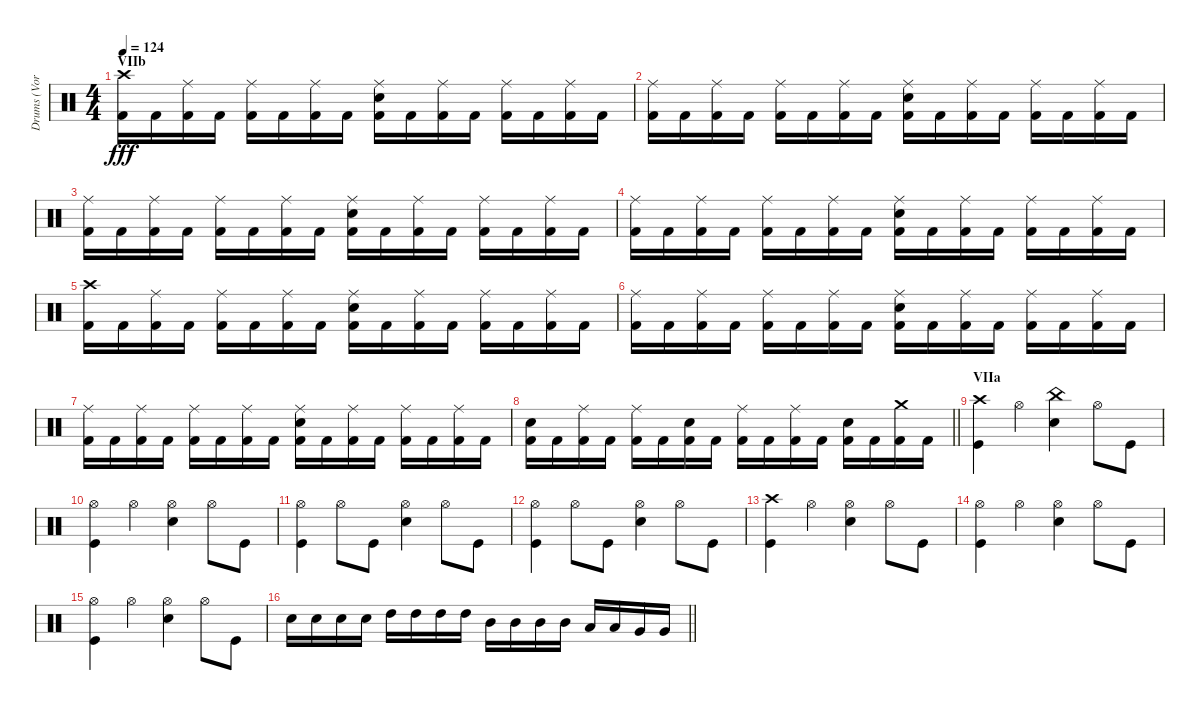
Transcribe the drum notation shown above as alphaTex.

\track ("Drums (Vortex)" "Drums (Vor") {instrument percussion}
\staff {score}
\articulation defaults
\ts (4 4)
\section ("" "VIIb")
\tempo 124
\clef neutral
\ks c
("Crash high (hit)" "Kick (hit) 2").16{dy fff} "Kick (hit) 2".16 ("Ride (middle)" "Kick (hit) 2").16 "Kick (hit) 2".16 ("Ride (middle)" "Kick (hit) 2").16 "Kick (hit) 2".16 ("Ride (middle)" "Kick (hit) 2").16 "Kick (hit) 2".16 ("Ride (middle)" "Snare (hit) 2" "Kick (hit) 2").16 "Kick (hit) 2".16 ("Ride (middle)" "Kick (hit) 2").16 "Kick (hit) 2".16 ("Ride (middle)" "Kick (hit) 2").16 "Kick (hit) 2".16 ("Ride (middle)" "Kick (hit) 2").16 "Kick (hit) 2".16 |
("Ride (middle)" "Kick (hit) 2").16 "Kick (hit) 2".16 ("Ride (middle)" "Kick (hit) 2").16 "Kick (hit) 2".16 ("Ride (middle)" "Kick (hit) 2").16 "Kick (hit) 2".16 ("Ride (middle)" "Kick (hit) 2").16 "Kick (hit) 2".16 ("Ride (middle)" "Snare (hit) 2" "Kick (hit) 2").16 "Kick (hit) 2".16 ("Ride (middle)" "Kick (hit) 2").16 "Kick (hit) 2".16 ("Ride (middle)" "Kick (hit) 2").16 "Kick (hit) 2".16 ("Ride (middle)" "Kick (hit) 2").16 "Kick (hit) 2".16 |
("Ride (middle)" "Kick (hit) 2").16 "Kick (hit) 2".16 ("Ride (middle)" "Kick (hit) 2").16 "Kick (hit) 2".16 ("Ride (middle)" "Kick (hit) 2").16 "Kick (hit) 2".16 ("Ride (middle)" "Kick (hit) 2").16 "Kick (hit) 2".16 ("Ride (middle)" "Snare (hit) 2" "Kick (hit) 2").16 "Kick (hit) 2".16 ("Ride (middle)" "Kick (hit) 2").16 "Kick (hit) 2".16 ("Ride (middle)" "Kick (hit) 2").16 "Kick (hit) 2".16 ("Ride (middle)" "Kick (hit) 2").16 "Kick (hit) 2".16 |
("Ride (middle)" "Kick (hit) 2").16 "Kick (hit) 2".16 ("Ride (middle)" "Kick (hit) 2").16 "Kick (hit) 2".16 ("Ride (middle)" "Kick (hit) 2").16 "Kick (hit) 2".16 ("Ride (middle)" "Kick (hit) 2").16 "Kick (hit) 2".16 ("Ride (middle)" "Snare (hit) 2" "Kick (hit) 2").16 "Kick (hit) 2".16 ("Ride (middle)" "Kick (hit) 2").16 "Kick (hit) 2".16 ("Ride (middle)" "Kick (hit) 2").16 "Kick (hit) 2".16 ("Ride (middle)" "Kick (hit) 2").16 "Kick (hit) 2".16 |
("Crash high (hit)" "Kick (hit) 2").16 "Kick (hit) 2".16 ("Ride (middle)" "Kick (hit) 2").16 "Kick (hit) 2".16 ("Ride (middle)" "Kick (hit) 2").16 "Kick (hit) 2".16 ("Ride (middle)" "Kick (hit) 2").16 "Kick (hit) 2".16 ("Ride (middle)" "Snare (hit) 2" "Kick (hit) 2").16 "Kick (hit) 2".16 ("Ride (middle)" "Kick (hit) 2").16 "Kick (hit) 2".16 ("Ride (middle)" "Kick (hit) 2").16 "Kick (hit) 2".16 ("Ride (middle)" "Kick (hit) 2").16 "Kick (hit) 2".16 |
("Ride (middle)" "Kick (hit) 2").16 "Kick (hit) 2".16 ("Ride (middle)" "Kick (hit) 2").16 "Kick (hit) 2".16 ("Ride (middle)" "Kick (hit) 2").16 "Kick (hit) 2".16 ("Ride (middle)" "Kick (hit) 2").16 "Kick (hit) 2".16 ("Ride (middle)" "Snare (hit) 2" "Kick (hit) 2").16 "Kick (hit) 2".16 ("Ride (middle)" "Kick (hit) 2").16 "Kick (hit) 2".16 ("Ride (middle)" "Kick (hit) 2").16 "Kick (hit) 2".16 ("Ride (middle)" "Kick (hit) 2").16 "Kick (hit) 2".16 |
("Ride (middle)" "Kick (hit) 2").16 "Kick (hit) 2".16 ("Ride (middle)" "Kick (hit) 2").16 "Kick (hit) 2".16 ("Ride (middle)" "Kick (hit) 2").16 "Kick (hit) 2".16 ("Ride (middle)" "Kick (hit) 2").16 "Kick (hit) 2".16 ("Ride (middle)" "Snare (hit) 2" "Kick (hit) 2").16 "Kick (hit) 2".16 ("Ride (middle)" "Kick (hit) 2").16 "Kick (hit) 2".16 ("Ride (middle)" "Kick (hit) 2").16 "Kick (hit) 2".16 ("Ride (middle)" "Kick (hit) 2").16 "Kick (hit) 2".16 |
\barLineRight lightlight
("Snare (hit) 2" "Kick (hit) 2").16 "Kick (hit) 2".16 ("Ride (middle)" "Kick (hit) 2").16 "Kick (hit) 2".16 ("Ride (middle)" "Kick (hit) 2").16 "Kick (hit) 2".16 ("Snare (hit) 2" "Kick (hit) 2").16 "Kick (hit) 2".16 ("Ride (middle)" "Kick (hit) 2").16 "Kick (hit) 2".16 ("Ride (middle)" "Kick (hit) 2").16 "Kick (hit) 2".16 ("Snare (hit) 2" "Kick (hit) 2").16 "Kick (hit) 2".16 ("Crash medium (hit)" "Kick (hit) 2").16 "Kick (hit) 2".16 |
\section ("" "VIIa")
("Crash high (hit)" "Kick (hit)").4 "Hi-Hat (open)".4 ("China (hit)" "Snare (hit) 2").4 "Hi-Hat (open)".8 "Kick (hit)".8 |
("Kick (hit)" "Hi-Hat (open)").4 "Hi-Hat (open)".4 ("Hi-Hat (open)" "Snare (hit) 2").4 "Hi-Hat (open)".8 "Kick (hit)".8 |
("Kick (hit)" "Hi-Hat (open)").4 "Hi-Hat (open)".8 "Kick (hit)".8 ("Hi-Hat (open)" "Snare (hit) 2").4 "Hi-Hat (open)".8 "Kick (hit)".8 |
("Kick (hit)" "Hi-Hat (open)").4 "Hi-Hat (open)".8 "Kick (hit)".8 ("Hi-Hat (open)" "Snare (hit) 2").4 "Hi-Hat (open)".8 "Kick (hit)".8 |
("Crash high (hit)" "Kick (hit)").4 "Hi-Hat (open)".4 ("Hi-Hat (open)" "Snare (hit) 2").4 "Hi-Hat (open)".8 "Kick (hit)".8 |
("Kick (hit)" "Hi-Hat (open)").4 "Hi-Hat (open)".4 ("Hi-Hat (open)" "Snare (hit) 2").4 "Hi-Hat (open)".8 "Kick (hit)".8 |
("Kick (hit)" "Hi-Hat (open)").4 "Hi-Hat (open)".4 ("Hi-Hat (open)" "Snare (hit) 2").4 "Hi-Hat (open)".8 "Kick (hit)".8 |
\barLineRight lightlight "Snare (hit) 2".16 "Snare (hit) 2".16 "Snare (hit) 2".16 "Snare (hit) 2".16 "High Tom (hit)".16 "High Tom (hit)".16 "High Tom (hit)".16 "High Tom (hit)".16 "Mid Tom (hit)".16 "Mid Tom (hit)".16 "Mid Tom (hit)".16 "Mid Tom (hit)".16 "Low Tom (hit)".16 "Low Tom (hit)".16 "Very Low Tom (hit)".16 "Very Low Tom (hit)".16
